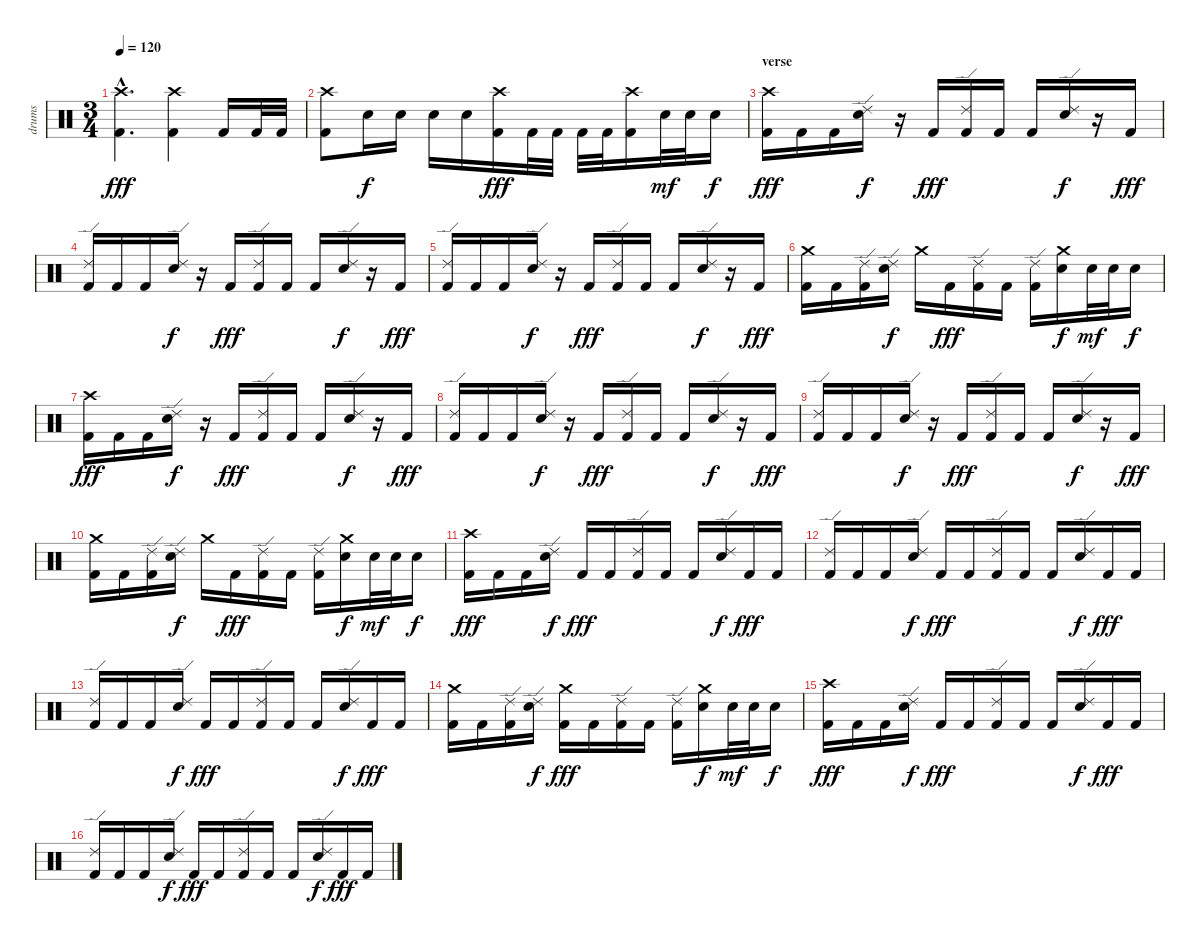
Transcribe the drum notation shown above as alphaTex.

\track ("drums" "drums") {instrument percussion}
\staff {score}
\articulation defaults
\ts (3 4)
\tempo 120
\clef neutral
\ks c
("Crash high (hit)"{hac} "Kick (hit) 2"{hac}).4{d dy fff} ("Crash high (hit)" "Kick (hit) 2").4 "Kick (hit) 2".16 "Kick (hit) 2".32 "Kick (hit) 2".32 |
("Crash high (hit)" "Kick (hit) 2").8 "Snare (hit) 2".16{dy f} "Snare (hit) 2".16 "Snare (hit) 2".16 "Snare (hit) 2".16 ("Crash high (hit)" "Kick (hit) 2").16{dy fff} "Kick (hit) 2".32 "Kick (hit) 2".32 "Kick (hit) 2".32 "Kick (hit) 2".32 ("Crash high (hit)" "Kick (hit) 2").16 "Snare (hit) 2".32{dy mf} "Snare (hit) 2".32 "Snare (hit) 2".16{dy f} |
\section ("" "verse")
("Crash high (hit)" "Kick (hit) 2").16{dy fff} "Kick (hit) 2".16 "Kick (hit) 2".16 ("Ride (edge) 2" "Snare (hit) 2").16{dy f} r.16 "Kick (hit) 2".16{dy fff} ("Ride (edge) 2" "Kick (hit) 2").16 "Kick (hit) 2".16 "Kick (hit) 2".16 ("Ride (edge) 2" "Snare (hit) 2").16{dy f} r.16 "Kick (hit) 2".16{dy fff} |
("Ride (edge) 2" "Kick (hit) 2").16 "Kick (hit) 2".16 "Kick (hit) 2".16 ("Ride (edge) 2" "Snare (hit) 2").16{dy f} r.16 "Kick (hit) 2".16{dy fff} ("Ride (edge) 2" "Kick (hit) 2").16 "Kick (hit) 2".16 "Kick (hit) 2".16 ("Ride (edge) 2" "Snare (hit) 2").16{dy f} r.16 "Kick (hit) 2".16{dy fff} |
("Ride (edge) 2" "Kick (hit) 2").16 "Kick (hit) 2".16 "Kick (hit) 2".16 ("Ride (edge) 2" "Snare (hit) 2").16{dy f} r.16 "Kick (hit) 2".16{dy fff} ("Ride (edge) 2" "Kick (hit) 2").16 "Kick (hit) 2".16 "Kick (hit) 2".16 ("Ride (edge) 2" "Snare (hit) 2").16{dy f} r.16 "Kick (hit) 2".16{dy fff} |
("Crash medium (hit)" "Kick (hit) 2").16 "Kick (hit) 2".16 ("Ride (edge) 2" "Kick (hit) 2").16 ("Ride (edge) 2" "Snare (hit) 2").16{dy f} "Crash medium (hit)".16 "Kick (hit) 2".16{dy fff} ("Ride (edge) 2" "Kick (hit) 2").16 "Kick (hit) 2".16 ("Ride (edge) 2" "Kick (hit) 2").16 ("Crash medium (hit)" "Snare (hit) 2").16{dy f} "Snare (hit) 2".32{dy mf} "Snare (hit) 2".32 "Snare (hit) 2".16{dy f} |
("Crash high (hit)" "Kick (hit) 2").16{dy fff} "Kick (hit) 2".16 "Kick (hit) 2".16 ("Ride (edge) 2" "Snare (hit) 2").16{dy f} r.16 "Kick (hit) 2".16{dy fff} ("Ride (edge) 2" "Kick (hit) 2").16 "Kick (hit) 2".16 "Kick (hit) 2".16 ("Ride (edge) 2" "Snare (hit) 2").16{dy f} r.16 "Kick (hit) 2".16{dy fff} |
("Ride (edge) 2" "Kick (hit) 2").16 "Kick (hit) 2".16 "Kick (hit) 2".16 ("Ride (edge) 2" "Snare (hit) 2").16{dy f} r.16 "Kick (hit) 2".16{dy fff} ("Ride (edge) 2" "Kick (hit) 2").16 "Kick (hit) 2".16 "Kick (hit) 2".16 ("Ride (edge) 2" "Snare (hit) 2").16{dy f} r.16 "Kick (hit) 2".16{dy fff} |
("Ride (edge) 2" "Kick (hit) 2").16 "Kick (hit) 2".16 "Kick (hit) 2".16 ("Ride (edge) 2" "Snare (hit) 2").16{dy f} r.16 "Kick (hit) 2".16{dy fff} ("Ride (edge) 2" "Kick (hit) 2").16 "Kick (hit) 2".16 "Kick (hit) 2".16 ("Ride (edge) 2" "Snare (hit) 2").16{dy f} r.16 "Kick (hit) 2".16{dy fff} |
("Crash medium (hit)" "Kick (hit) 2").16 "Kick (hit) 2".16 ("Ride (edge) 2" "Kick (hit) 2").16 ("Ride (edge) 2" "Snare (hit) 2").16{dy f} "Crash medium (hit)".16 "Kick (hit) 2".16{dy fff} ("Ride (edge) 2" "Kick (hit) 2").16 "Kick (hit) 2".16 ("Ride (edge) 2" "Kick (hit) 2").16 ("Crash medium (hit)" "Snare (hit) 2").16{dy f} "Snare (hit) 2".32{dy mf} "Snare (hit) 2".32 "Snare (hit) 2".16{dy f} |
("Crash high (hit)" "Kick (hit) 2").16{dy fff} "Kick (hit) 2".16 "Kick (hit) 2".16 ("Ride (edge) 2" "Snare (hit) 2").16{dy f} "Kick (hit) 2".16{dy fff} "Kick (hit) 2".16 ("Ride (edge) 2" "Kick (hit) 2").16 "Kick (hit) 2".16 "Kick (hit) 2".16 ("Ride (edge) 2" "Snare (hit) 2").16{dy f} "Kick (hit) 2".16{dy fff} "Kick (hit) 2".16 |
("Ride (edge) 2" "Kick (hit) 2").16 "Kick (hit) 2".16 "Kick (hit) 2".16 ("Ride (edge) 2" "Snare (hit) 2").16{dy f} "Kick (hit) 2".16{dy fff} "Kick (hit) 2".16 ("Ride (edge) 2" "Kick (hit) 2").16 "Kick (hit) 2".16 "Kick (hit) 2".16 ("Ride (edge) 2" "Snare (hit) 2").16{dy f} "Kick (hit) 2".16{dy fff} "Kick (hit) 2".16 |
("Ride (edge) 2" "Kick (hit) 2").16 "Kick (hit) 2".16 "Kick (hit) 2".16 ("Ride (edge) 2" "Snare (hit) 2").16{dy f} "Kick (hit) 2".16{dy fff} "Kick (hit) 2".16 ("Ride (edge) 2" "Kick (hit) 2").16 "Kick (hit) 2".16 "Kick (hit) 2".16 ("Ride (edge) 2" "Snare (hit) 2").16{dy f} "Kick (hit) 2".16{dy fff} "Kick (hit) 2".16 |
("Crash medium (hit)" "Kick (hit) 2").16 "Kick (hit) 2".16 ("Ride (edge) 2" "Kick (hit) 2").16 ("Ride (edge) 2" "Snare (hit) 2").16{dy f} ("Crash medium (hit)" "Kick (hit) 2").16{dy fff} "Kick (hit) 2".16 ("Ride (edge) 2" "Kick (hit) 2").16 "Kick (hit) 2".16 ("Ride (edge) 2" "Kick (hit) 2").16 ("Crash medium (hit)" "Snare (hit) 2").16{dy f} "Snare (hit) 2".32{dy mf} "Snare (hit) 2".32 "Snare (hit) 2".16{dy f} |
("Crash high (hit)" "Kick (hit) 2").16{dy fff} "Kick (hit) 2".16 "Kick (hit) 2".16 ("Ride (edge) 2" "Snare (hit) 2").16{dy f} "Kick (hit) 2".16{dy fff} "Kick (hit) 2".16 ("Ride (edge) 2" "Kick (hit) 2").16 "Kick (hit) 2".16 "Kick (hit) 2".16 ("Ride (edge) 2" "Snare (hit) 2").16{dy f} "Kick (hit) 2".16{dy fff} "Kick (hit) 2".16 |
("Ride (edge) 2" "Kick (hit) 2").16 "Kick (hit) 2".16 "Kick (hit) 2".16 ("Ride (edge) 2" "Snare (hit) 2").16{dy f} "Kick (hit) 2".16{dy fff} "Kick (hit) 2".16 ("Ride (edge) 2" "Kick (hit) 2").16 "Kick (hit) 2".16 "Kick (hit) 2".16 ("Ride (edge) 2" "Snare (hit) 2").16{dy f} "Kick (hit) 2".16{dy fff} "Kick (hit) 2".16
